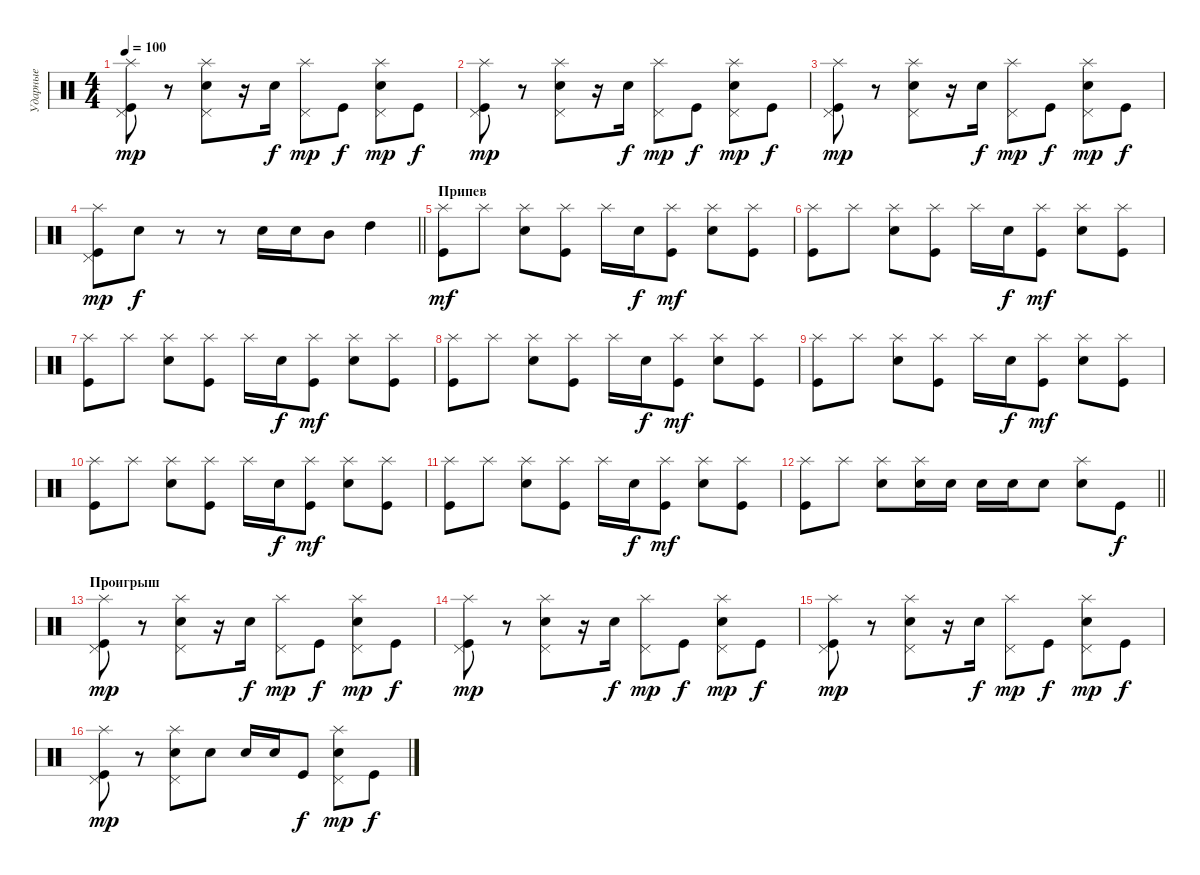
\track ("Ударные" "Ударные") {instrument percussion}
\staff {score}
\articulation defaults
\ts (4 4)
\tempo 100
\clef neutral
\ks c
("Splash (hit)" "Pedal Hi-Hat (hit)" "Kick (hit)").8{dy mp} r.8 ("Splash (hit)" "Pedal Hi-Hat (hit)" "Electric Snare (hit)").8 r.16 "Electric Snare (hit)".16{dy f} ("Splash (hit)" "Pedal Hi-Hat (hit)").8{dy mp} "Kick (hit)".8{dy f} ("Splash (hit)" "Pedal Hi-Hat (hit)" "Electric Snare (hit)").8{dy mp} "Kick (hit)".8{dy f} |
("Splash (hit)" "Pedal Hi-Hat (hit)" "Kick (hit)").8{dy mp} r.8 ("Splash (hit)" "Pedal Hi-Hat (hit)" "Electric Snare (hit)").8 r.16 "Electric Snare (hit)".16{dy f} ("Splash (hit)" "Pedal Hi-Hat (hit)").8{dy mp} "Kick (hit)".8{dy f} ("Splash (hit)" "Pedal Hi-Hat (hit)" "Electric Snare (hit)").8{dy mp} "Kick (hit)".8{dy f} |
("Splash (hit)" "Pedal Hi-Hat (hit)" "Kick (hit)").8{dy mp} r.8 ("Splash (hit)" "Pedal Hi-Hat (hit)" "Electric Snare (hit)").8 r.16 "Electric Snare (hit)".16{dy f} ("Splash (hit)" "Pedal Hi-Hat (hit)").8{dy mp} "Kick (hit)".8{dy f} ("Splash (hit)" "Pedal Hi-Hat (hit)" "Electric Snare (hit)").8{dy mp} "Kick (hit)".8{dy f} |
\barLineRight lightlight
("Splash (hit)" "Pedal Hi-Hat (hit)" "Kick (hit)").8{dy mp} "Electric Snare (hit)".8{dy f} r.8 r.8 "Electric Snare (hit)".16 "Electric Snare (hit)".16 "Mid Tom (hit)".8 "High Tom (hit)".4 |
\section ("" "Припев")
("Splash (hit)" "Kick (hit)").8{dy mf} "Splash (hit)".8 ("Splash (hit)" "Electric Snare (hit)").8 ("Splash (hit)" "Kick (hit)").8 "Splash (hit)".16 "Electric Snare (hit)".16{dy f} ("Splash (hit)" "Kick (hit)").8{dy mf} ("Splash (hit)" "Electric Snare (hit)").8 ("Splash (hit)" "Kick (hit)").8 |
("Splash (hit)" "Kick (hit)").8 "Splash (hit)".8 ("Splash (hit)" "Electric Snare (hit)").8 ("Splash (hit)" "Kick (hit)").8 "Splash (hit)".16 "Electric Snare (hit)".16{dy f} ("Splash (hit)" "Kick (hit)").8{dy mf} ("Splash (hit)" "Electric Snare (hit)").8 ("Splash (hit)" "Kick (hit)").8 |
("Splash (hit)" "Kick (hit)").8 "Splash (hit)".8 ("Splash (hit)" "Electric Snare (hit)").8 ("Splash (hit)" "Kick (hit)").8 "Splash (hit)".16 "Electric Snare (hit)".16{dy f} ("Splash (hit)" "Kick (hit)").8{dy mf} ("Splash (hit)" "Electric Snare (hit)").8 ("Splash (hit)" "Kick (hit)").8 |
("Splash (hit)" "Kick (hit)").8 "Splash (hit)".8 ("Splash (hit)" "Electric Snare (hit)").8 ("Splash (hit)" "Kick (hit)").8 "Splash (hit)".16 "Electric Snare (hit)".16{dy f} ("Splash (hit)" "Kick (hit)").8{dy mf} ("Splash (hit)" "Electric Snare (hit)").8 ("Splash (hit)" "Kick (hit)").8 |
("Splash (hit)" "Kick (hit)").8 "Splash (hit)".8 ("Splash (hit)" "Electric Snare (hit)").8 ("Splash (hit)" "Kick (hit)").8 "Splash (hit)".16 "Electric Snare (hit)".16{dy f} ("Splash (hit)" "Kick (hit)").8{dy mf} ("Splash (hit)" "Electric Snare (hit)").8 ("Splash (hit)" "Kick (hit)").8 |
("Splash (hit)" "Kick (hit)").8 "Splash (hit)".8 ("Splash (hit)" "Electric Snare (hit)").8 ("Splash (hit)" "Kick (hit)").8 "Splash (hit)".16 "Electric Snare (hit)".16{dy f} ("Splash (hit)" "Kick (hit)").8{dy mf} ("Splash (hit)" "Electric Snare (hit)").8 ("Splash (hit)" "Kick (hit)").8 |
("Splash (hit)" "Kick (hit)").8 "Splash (hit)".8 ("Splash (hit)" "Electric Snare (hit)").8 ("Splash (hit)" "Kick (hit)").8 "Splash (hit)".16 "Electric Snare (hit)".16{dy f} ("Splash (hit)" "Kick (hit)").8{dy mf} ("Splash (hit)" "Electric Snare (hit)").8 ("Splash (hit)" "Kick (hit)").8 |
\barLineRight lightlight
("Splash (hit)" "Kick (hit)").8 "Splash (hit)".8 ("Splash (hit)" "Electric Snare (hit)").8 ("Splash (hit)" "Electric Snare (hit)").16 "Electric Snare (hit)".16 "Electric Snare (hit)".16 "Electric Snare (hit)".16 "Electric Snare (hit)".8 ("Splash (hit)" "Electric Snare (hit)").8 "Kick (hit)".8{dy f} |
\section ("" "Проигрыш")
("Splash (hit)" "Pedal Hi-Hat (hit)" "Kick (hit)").8{dy mp} r.8 ("Splash (hit)" "Pedal Hi-Hat (hit)" "Electric Snare (hit)").8 r.16 "Electric Snare (hit)".16{dy f} ("Splash (hit)" "Pedal Hi-Hat (hit)").8{dy mp} "Kick (hit)".8{dy f} ("Splash (hit)" "Pedal Hi-Hat (hit)" "Electric Snare (hit)").8{dy mp} "Kick (hit)".8{dy f} |
("Splash (hit)" "Pedal Hi-Hat (hit)" "Kick (hit)").8{dy mp} r.8 ("Splash (hit)" "Pedal Hi-Hat (hit)" "Electric Snare (hit)").8 r.16 "Electric Snare (hit)".16{dy f} ("Splash (hit)" "Pedal Hi-Hat (hit)").8{dy mp} "Kick (hit)".8{dy f} ("Splash (hit)" "Pedal Hi-Hat (hit)" "Electric Snare (hit)").8{dy mp} "Kick (hit)".8{dy f} |
("Splash (hit)" "Pedal Hi-Hat (hit)" "Kick (hit)").8{dy mp} r.8 ("Splash (hit)" "Pedal Hi-Hat (hit)" "Electric Snare (hit)").8 r.16 "Electric Snare (hit)".16{dy f} ("Splash (hit)" "Pedal Hi-Hat (hit)").8{dy mp} "Kick (hit)".8{dy f} ("Splash (hit)" "Pedal Hi-Hat (hit)" "Electric Snare (hit)").8{dy mp} "Kick (hit)".8{dy f} |
("Splash (hit)" "Pedal Hi-Hat (hit)" "Kick (hit)").8{dy mp} r.8 ("Splash (hit)" "Pedal Hi-Hat (hit)" "Electric Snare (hit)").8 "Electric Snare (hit)".8 "Electric Snare (hit)".16 "Electric Snare (hit)".16 "Kick (hit)".8{dy f} ("Splash (hit)" "Pedal Hi-Hat (hit)" "Electric Snare (hit)").8{dy mp} "Kick (hit)".8{dy f}
